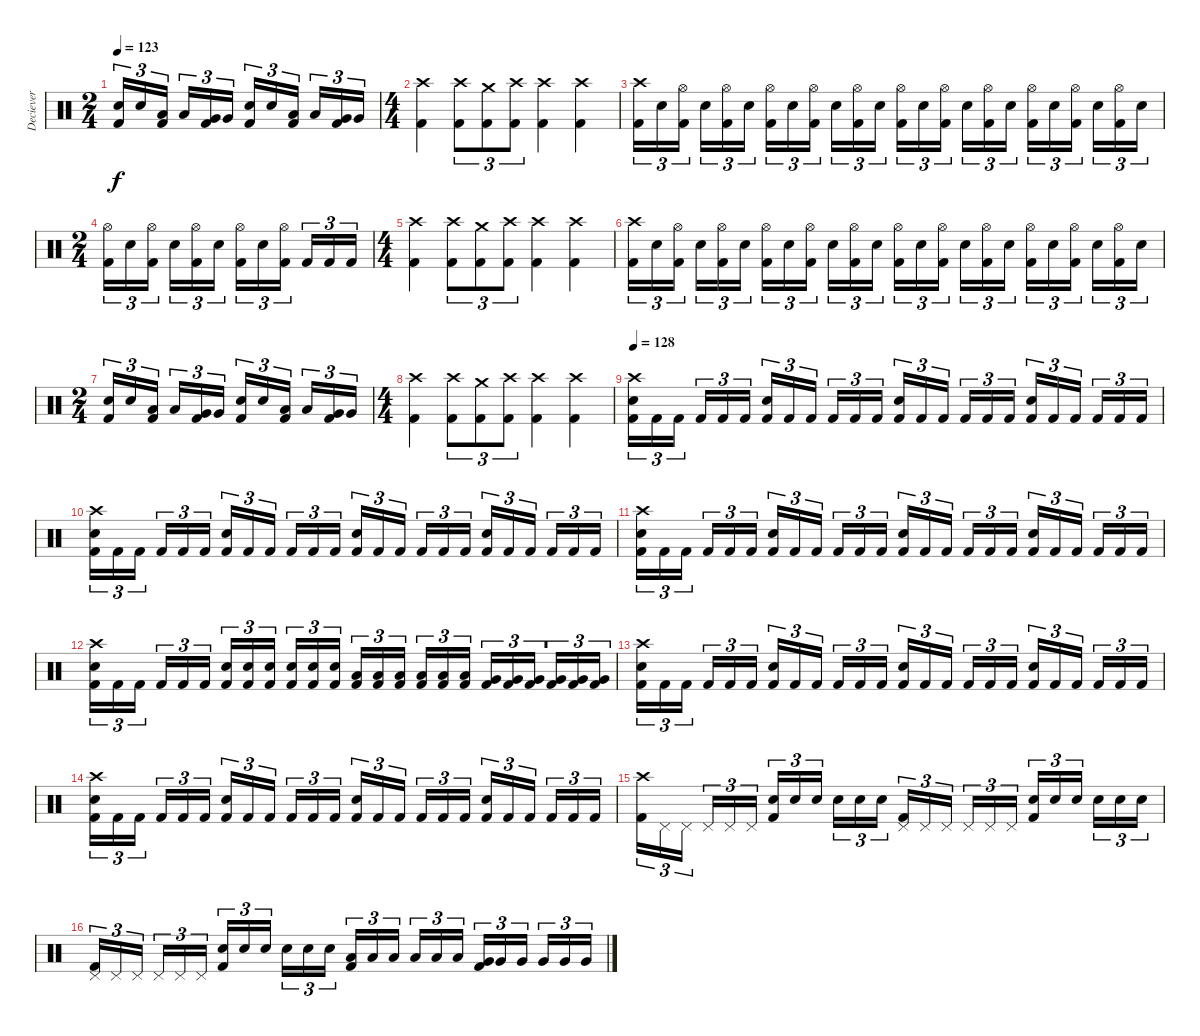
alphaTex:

\track ("Deciever" "Deciever") {instrument percussion}
\staff {score}
\articulation defaults
\ts (2 4)
\tempo 123
\clef neutral
\ks c
("Electric Snare (hit)" "Kick (hit) 2").16{tu (3 2) dy f} "Electric Snare (hit)".16{tu (3 2)} ("Low Tom (hit)" "Kick (hit) 2").16{tu (3 2) beam splitsecondary} "Low Tom (hit)".16{tu (3 2)} ("Very Low Tom (hit)" "Kick (hit) 2").16{tu (3 2)} "Very Low Tom (hit)".16{tu (3 2)} ("Electric Snare (hit)" "Kick (hit) 2").16{tu (3 2)} "Electric Snare (hit)".16{tu (3 2)} ("Low Tom (hit)" "Kick (hit) 2").16{tu (3 2) beam splitsecondary} "Low Tom (hit)".16{tu (3 2)} ("Very Low Tom (hit)" "Kick (hit) 2").16{tu (3 2)} "Very Low Tom (hit)".16{tu (3 2)} |
\ts (4 4)
("Crash high (hit)" "Kick (hit) 2").4 ("Crash high (hit)" "Kick (hit) 2").8{tu (3 2)} ("Crash medium (hit)" "Kick (hit) 2").8{tu (3 2)} ("Crash high (hit)" "Kick (hit) 2").8{tu (3 2)} ("Crash high (hit)" "Kick (hit) 2").4 ("Crash high (hit)" "Kick (hit) 2").4 |
("Crash high (hit)" "Kick (hit) 2").16{tu (3 2)} "Electric Snare (hit)".16{tu (3 2)} ("Hi-Hat (open)" "Kick (hit) 2").16{tu (3 2) beam splitsecondary} "Electric Snare (hit)".16{tu (3 2)} ("Hi-Hat (open)" "Kick (hit) 2").16{tu (3 2)} "Electric Snare (hit)".16{tu (3 2)} ("Hi-Hat (open)" "Kick (hit) 2").16{tu (3 2)} "Electric Snare (hit)".16{tu (3 2)} ("Hi-Hat (open)" "Kick (hit) 2").16{tu (3 2) beam splitsecondary} "Electric Snare (hit)".16{tu (3 2)} ("Hi-Hat (open)" "Kick (hit) 2").16{tu (3 2)} "Electric Snare (hit)".16{tu (3 2)} ("Hi-Hat (open)" "Kick (hit) 2").16{tu (3 2)} "Electric Snare (hit)".16{tu (3 2)} ("Hi-Hat (open)" "Kick (hit) 2").16{tu (3 2) beam splitsecondary} "Electric Snare (hit)".16{tu (3 2)} ("Hi-Hat (open)" "Kick (hit) 2").16{tu (3 2)} "Electric Snare (hit)".16{tu (3 2)} ("Hi-Hat (open)" "Kick (hit) 2").16{tu (3 2)} "Electric Snare (hit)".16{tu (3 2)} ("Hi-Hat (open)" "Kick (hit) 2").16{tu (3 2) beam splitsecondary} "Electric Snare (hit)".16{tu (3 2)} ("Hi-Hat (open)" "Kick (hit) 2").16{tu (3 2)} "Electric Snare (hit)".16{tu (3 2)} |
\ts (2 4)
("Hi-Hat (open)" "Kick (hit) 2").16{tu (3 2)} "Electric Snare (hit)".16{tu (3 2)} ("Hi-Hat (open)" "Kick (hit) 2").16{tu (3 2) beam splitsecondary} "Electric Snare (hit)".16{tu (3 2)} ("Hi-Hat (open)" "Kick (hit) 2").16{tu (3 2)} "Electric Snare (hit)".16{tu (3 2)} ("Hi-Hat (open)" "Kick (hit) 2").16{tu (3 2)} "Electric Snare (hit)".16{tu (3 2)} ("Hi-Hat (open)" "Kick (hit) 2").16{tu (3 2) beam splitsecondary} "Kick (hit) 2".16{tu (3 2)} "Kick (hit) 2".16{tu (3 2)} "Kick (hit) 2".16{tu (3 2)} |
\ts (4 4)
("Crash high (hit)" "Kick (hit) 2").4 ("Crash high (hit)" "Kick (hit) 2").8{tu (3 2)} ("Crash medium (hit)" "Kick (hit) 2").8{tu (3 2)} ("Crash high (hit)" "Kick (hit) 2").8{tu (3 2)} ("Crash high (hit)" "Kick (hit) 2").4 ("Crash high (hit)" "Kick (hit) 2").4 |
("Crash high (hit)" "Kick (hit) 2").16{tu (3 2)} "Electric Snare (hit)".16{tu (3 2)} ("Hi-Hat (open)" "Kick (hit) 2").16{tu (3 2) beam splitsecondary} "Electric Snare (hit)".16{tu (3 2)} ("Hi-Hat (open)" "Kick (hit) 2").16{tu (3 2)} "Electric Snare (hit)".16{tu (3 2)} ("Hi-Hat (open)" "Kick (hit) 2").16{tu (3 2)} "Electric Snare (hit)".16{tu (3 2)} ("Hi-Hat (open)" "Kick (hit) 2").16{tu (3 2) beam splitsecondary} "Electric Snare (hit)".16{tu (3 2)} ("Hi-Hat (open)" "Kick (hit) 2").16{tu (3 2)} "Electric Snare (hit)".16{tu (3 2)} ("Hi-Hat (open)" "Kick (hit) 2").16{tu (3 2)} "Electric Snare (hit)".16{tu (3 2)} ("Hi-Hat (open)" "Kick (hit) 2").16{tu (3 2) beam splitsecondary} "Electric Snare (hit)".16{tu (3 2)} ("Hi-Hat (open)" "Kick (hit) 2").16{tu (3 2)} "Electric Snare (hit)".16{tu (3 2)} ("Hi-Hat (open)" "Kick (hit) 2").16{tu (3 2)} "Electric Snare (hit)".16{tu (3 2)} ("Hi-Hat (open)" "Kick (hit) 2").16{tu (3 2) beam splitsecondary} "Electric Snare (hit)".16{tu (3 2)} ("Hi-Hat (open)" "Kick (hit) 2").16{tu (3 2)} "Electric Snare (hit)".16{tu (3 2)} |
\ts (2 4)
("Electric Snare (hit)" "Kick (hit) 2").16{tu (3 2)} "Electric Snare (hit)".16{tu (3 2)} ("Low Tom (hit)" "Kick (hit) 2").16{tu (3 2) beam splitsecondary} "Low Tom (hit)".16{tu (3 2)} ("Very Low Tom (hit)" "Kick (hit) 2").16{tu (3 2)} "Very Low Tom (hit)".16{tu (3 2)} ("Electric Snare (hit)" "Kick (hit) 2").16{tu (3 2)} "Electric Snare (hit)".16{tu (3 2)} ("Low Tom (hit)" "Kick (hit) 2").16{tu (3 2) beam splitsecondary} "Low Tom (hit)".16{tu (3 2)} ("Very Low Tom (hit)" "Kick (hit) 2").16{tu (3 2)} "Very Low Tom (hit)".16{tu (3 2)} |
\ts (4 4)
("Crash high (hit)" "Kick (hit) 2").4 ("Crash high (hit)" "Kick (hit) 2").8{tu (3 2)} ("Crash medium (hit)" "Kick (hit) 2").8{tu (3 2)} ("Crash high (hit)" "Kick (hit) 2").8{tu (3 2)} ("Crash high (hit)" "Kick (hit) 2").4 ("Crash high (hit)" "Kick (hit) 2").4 |
\tempo 128
("Crash high (hit)" "Electric Snare (hit)" "Kick (hit) 2").16{tu (3 2)} "Kick (hit) 2".16{tu (3 2)} "Kick (hit) 2".16{tu (3 2) beam splitsecondary} "Kick (hit) 2".16{tu (3 2)} "Kick (hit) 2".16{tu (3 2)} "Kick (hit) 2".16{tu (3 2)} ("Electric Snare (hit)" "Kick (hit) 2").16{tu (3 2)} "Kick (hit) 2".16{tu (3 2)} "Kick (hit) 2".16{tu (3 2) beam splitsecondary} "Kick (hit) 2".16{tu (3 2)} "Kick (hit) 2".16{tu (3 2)} "Kick (hit) 2".16{tu (3 2)} ("Electric Snare (hit)" "Kick (hit) 2").16{tu (3 2)} "Kick (hit) 2".16{tu (3 2)} "Kick (hit) 2".16{tu (3 2) beam splitsecondary} "Kick (hit) 2".16{tu (3 2)} "Kick (hit) 2".16{tu (3 2)} "Kick (hit) 2".16{tu (3 2)} ("Electric Snare (hit)" "Kick (hit) 2").16{tu (3 2)} "Kick (hit) 2".16{tu (3 2)} "Kick (hit) 2".16{tu (3 2) beam splitsecondary} "Kick (hit) 2".16{tu (3 2)} "Kick (hit) 2".16{tu (3 2)} "Kick (hit) 2".16{tu (3 2)} |
("Crash high (hit)" "Electric Snare (hit)" "Kick (hit) 2").16{tu (3 2)} "Kick (hit) 2".16{tu (3 2)} "Kick (hit) 2".16{tu (3 2) beam splitsecondary} "Kick (hit) 2".16{tu (3 2)} "Kick (hit) 2".16{tu (3 2)} "Kick (hit) 2".16{tu (3 2)} ("Electric Snare (hit)" "Kick (hit) 2").16{tu (3 2)} "Kick (hit) 2".16{tu (3 2)} "Kick (hit) 2".16{tu (3 2) beam splitsecondary} "Kick (hit) 2".16{tu (3 2)} "Kick (hit) 2".16{tu (3 2)} "Kick (hit) 2".16{tu (3 2)} ("Electric Snare (hit)" "Kick (hit) 2").16{tu (3 2)} "Kick (hit) 2".16{tu (3 2)} "Kick (hit) 2".16{tu (3 2) beam splitsecondary} "Kick (hit) 2".16{tu (3 2)} "Kick (hit) 2".16{tu (3 2)} "Kick (hit) 2".16{tu (3 2)} ("Electric Snare (hit)" "Kick (hit) 2").16{tu (3 2)} "Kick (hit) 2".16{tu (3 2)} "Kick (hit) 2".16{tu (3 2) beam splitsecondary} "Kick (hit) 2".16{tu (3 2)} "Kick (hit) 2".16{tu (3 2)} "Kick (hit) 2".16{tu (3 2)} |
("Crash high (hit)" "Electric Snare (hit)" "Kick (hit) 2").16{tu (3 2)} "Kick (hit) 2".16{tu (3 2)} "Kick (hit) 2".16{tu (3 2) beam splitsecondary} "Kick (hit) 2".16{tu (3 2)} "Kick (hit) 2".16{tu (3 2)} "Kick (hit) 2".16{tu (3 2)} ("Electric Snare (hit)" "Kick (hit) 2").16{tu (3 2)} "Kick (hit) 2".16{tu (3 2)} "Kick (hit) 2".16{tu (3 2) beam splitsecondary} "Kick (hit) 2".16{tu (3 2)} "Kick (hit) 2".16{tu (3 2)} "Kick (hit) 2".16{tu (3 2)} ("Electric Snare (hit)" "Kick (hit) 2").16{tu (3 2)} "Kick (hit) 2".16{tu (3 2)} "Kick (hit) 2".16{tu (3 2) beam splitsecondary} "Kick (hit) 2".16{tu (3 2)} "Kick (hit) 2".16{tu (3 2)} "Kick (hit) 2".16{tu (3 2)} ("Electric Snare (hit)" "Kick (hit) 2").16{tu (3 2)} "Kick (hit) 2".16{tu (3 2)} "Kick (hit) 2".16{tu (3 2) beam splitsecondary} "Kick (hit) 2".16{tu (3 2)} "Kick (hit) 2".16{tu (3 2)} "Kick (hit) 2".16{tu (3 2)} |
("Crash high (hit)" "Electric Snare (hit)" "Kick (hit) 2").16{tu (3 2)} "Kick (hit) 2".16{tu (3 2)} "Kick (hit) 2".16{tu (3 2) beam splitsecondary} "Kick (hit) 2".16{tu (3 2)} "Kick (hit) 2".16{tu (3 2)} "Kick (hit) 2".16{tu (3 2)} ("Electric Snare (hit)" "Kick (hit) 2").16{tu (3 2)} ("Electric Snare (hit)" "Kick (hit) 2").16{tu (3 2)} ("Electric Snare (hit)" "Kick (hit) 2").16{tu (3 2) beam splitsecondary} ("Electric Snare (hit)" "Kick (hit) 2").16{tu (3 2)} ("Electric Snare (hit)" "Kick (hit) 2").16{tu (3 2)} ("Electric Snare (hit)" "Kick (hit) 2").16{tu (3 2)} ("Low Tom (hit)" "Kick (hit) 2").16{tu (3 2)} ("Low Tom (hit)" "Kick (hit) 2").16{tu (3 2)} ("Low Tom (hit)" "Kick (hit) 2").16{tu (3 2) beam splitsecondary} ("Low Tom (hit)" "Kick (hit) 2").16{tu (3 2)} ("Low Tom (hit)" "Kick (hit) 2").16{tu (3 2)} ("Low Tom (hit)" "Kick (hit) 2").16{tu (3 2)} ("Very Low Tom (hit)" "Kick (hit) 2").16{tu (3 2)} ("Very Low Tom (hit)" "Kick (hit) 2").16{tu (3 2)} ("Very Low Tom (hit)" "Kick (hit) 2").16{tu (3 2) beam splitsecondary} ("Very Low Tom (hit)" "Kick (hit) 2").16{tu (3 2)} ("Very Low Tom (hit)" "Kick (hit) 2").16{tu (3 2)} ("Very Low Tom (hit)" "Kick (hit) 2").16{tu (3 2)} |
("Crash high (hit)" "Electric Snare (hit)" "Kick (hit) 2").16{tu (3 2)} "Kick (hit) 2".16{tu (3 2)} "Kick (hit) 2".16{tu (3 2) beam splitsecondary} "Kick (hit) 2".16{tu (3 2)} "Kick (hit) 2".16{tu (3 2)} "Kick (hit) 2".16{tu (3 2)} ("Electric Snare (hit)" "Kick (hit) 2").16{tu (3 2)} "Kick (hit) 2".16{tu (3 2)} "Kick (hit) 2".16{tu (3 2) beam splitsecondary} "Kick (hit) 2".16{tu (3 2)} "Kick (hit) 2".16{tu (3 2)} "Kick (hit) 2".16{tu (3 2)} ("Electric Snare (hit)" "Kick (hit) 2").16{tu (3 2)} "Kick (hit) 2".16{tu (3 2)} "Kick (hit) 2".16{tu (3 2) beam splitsecondary} "Kick (hit) 2".16{tu (3 2)} "Kick (hit) 2".16{tu (3 2)} "Kick (hit) 2".16{tu (3 2)} ("Electric Snare (hit)" "Kick (hit) 2").16{tu (3 2)} "Kick (hit) 2".16{tu (3 2)} "Kick (hit) 2".16{tu (3 2) beam splitsecondary} "Kick (hit) 2".16{tu (3 2)} "Kick (hit) 2".16{tu (3 2)} "Kick (hit) 2".16{tu (3 2)} |
("Crash high (hit)" "Electric Snare (hit)" "Kick (hit) 2").16{tu (3 2)} "Kick (hit) 2".16{tu (3 2)} "Kick (hit) 2".16{tu (3 2) beam splitsecondary} "Kick (hit) 2".16{tu (3 2)} "Kick (hit) 2".16{tu (3 2)} "Kick (hit) 2".16{tu (3 2)} ("Electric Snare (hit)" "Kick (hit) 2").16{tu (3 2)} "Kick (hit) 2".16{tu (3 2)} "Kick (hit) 2".16{tu (3 2) beam splitsecondary} "Kick (hit) 2".16{tu (3 2)} "Kick (hit) 2".16{tu (3 2)} "Kick (hit) 2".16{tu (3 2)} ("Electric Snare (hit)" "Kick (hit) 2").16{tu (3 2)} "Kick (hit) 2".16{tu (3 2)} "Kick (hit) 2".16{tu (3 2) beam splitsecondary} "Kick (hit) 2".16{tu (3 2)} "Kick (hit) 2".16{tu (3 2)} "Kick (hit) 2".16{tu (3 2)} ("Electric Snare (hit)" "Kick (hit) 2").16{tu (3 2)} "Kick (hit) 2".16{tu (3 2)} "Kick (hit) 2".16{tu (3 2) beam splitsecondary} "Kick (hit) 2".16{tu (3 2)} "Kick (hit) 2".16{tu (3 2)} "Kick (hit) 2".16{tu (3 2)} |
("Crash high (hit)" "Kick (hit) 2").16{tu (3 2)} "Pedal Hi-Hat (hit)".16{tu (3 2)} "Pedal Hi-Hat (hit)".16{tu (3 2) beam splitsecondary} "Pedal Hi-Hat (hit)".16{tu (3 2)} "Pedal Hi-Hat (hit)".16{tu (3 2)} "Pedal Hi-Hat (hit)".16{tu (3 2)} ("Electric Snare (hit)" "Kick (hit) 2").16{tu (3 2)} "Electric Snare (hit)".16{tu (3 2)} "Electric Snare (hit)".16{tu (3 2) beam splitsecondary} "Electric Snare (hit)".16{tu (3 2)} "Electric Snare (hit)".16{tu (3 2)} "Electric Snare (hit)".16{tu (3 2)} ("Pedal Hi-Hat (hit)" "Kick (hit) 2").16{tu (3 2)} "Pedal Hi-Hat (hit)".16{tu (3 2)} "Pedal Hi-Hat (hit)".16{tu (3 2) beam splitsecondary} "Pedal Hi-Hat (hit)".16{tu (3 2)} "Pedal Hi-Hat (hit)".16{tu (3 2)} "Pedal Hi-Hat (hit)".16{tu (3 2)} ("Electric Snare (hit)" "Kick (hit) 2").16{tu (3 2)} "Electric Snare (hit)".16{tu (3 2)} "Electric Snare (hit)".16{tu (3 2) beam splitsecondary} "Electric Snare (hit)".16{tu (3 2)} "Electric Snare (hit)".16{tu (3 2)} "Electric Snare (hit)".16{tu (3 2)} |
("Pedal Hi-Hat (hit)" "Kick (hit) 2").16{tu (3 2)} "Pedal Hi-Hat (hit)".16{tu (3 2)} "Pedal Hi-Hat (hit)".16{tu (3 2) beam splitsecondary} "Pedal Hi-Hat (hit)".16{tu (3 2)} "Pedal Hi-Hat (hit)".16{tu (3 2)} "Pedal Hi-Hat (hit)".16{tu (3 2)} ("Electric Snare (hit)" "Kick (hit) 2").16{tu (3 2)} "Electric Snare (hit)".16{tu (3 2)} "Electric Snare (hit)".16{tu (3 2) beam splitsecondary} "Electric Snare (hit)".16{tu (3 2)} "Electric Snare (hit)".16{tu (3 2)} "Electric Snare (hit)".16{tu (3 2)} ("Low Tom (hit)" "Kick (hit) 2").16{tu (3 2)} "Low Tom (hit)".16{tu (3 2)} "Low Tom (hit)".16{tu (3 2) beam splitsecondary} "Low Tom (hit)".16{tu (3 2)} "Low Tom (hit)".16{tu (3 2)} "Low Tom (hit)".16{tu (3 2)} ("Very Low Tom (hit)" "Kick (hit) 2").16{tu (3 2)} "Very Low Tom (hit)".16{tu (3 2)} "Very Low Tom (hit)".16{tu (3 2) beam splitsecondary} "Very Low Tom (hit)".16{tu (3 2)} "Very Low Tom (hit)".16{tu (3 2)} "Very Low Tom (hit)".16{tu (3 2)}
